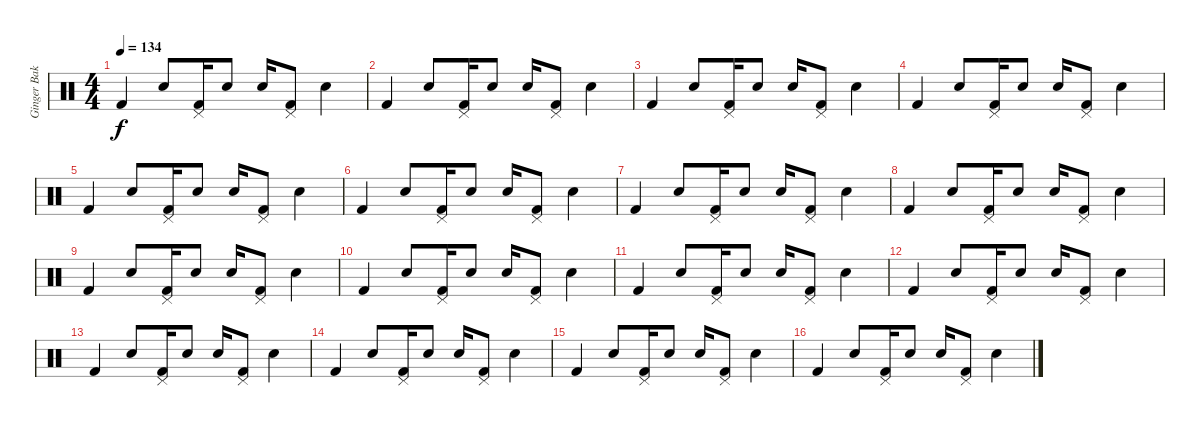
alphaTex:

\track ("Ginger Baker" "Ginger Bak") {instrument percussion}
\staff {score}
\articulation defaults
\ts (4 4)
\tempo 134
\clef neutral
\ks c "Kick (hit) 2".4{dy f} "Snare (hit) 2".8
("Pedal Hi-Hat (hit)" "Kick (hit) 2").16 "Snare (hit) 2".8 "Snare (hit) 2".16 ("Pedal Hi-Hat (hit)" "Kick (hit) 2").8 "Snare (hit) 2".4 |
"Kick (hit) 2".4 "Snare (hit) 2".8 ("Pedal Hi-Hat (hit)" "Kick (hit) 2").16 "Snare (hit) 2".8 "Snare (hit) 2".16 ("Pedal Hi-Hat (hit)" "Kick (hit) 2").8 "Snare (hit) 2".4 |
"Kick (hit) 2".4 "Snare (hit) 2".8 ("Pedal Hi-Hat (hit)" "Kick (hit) 2").16 "Snare (hit) 2".8 "Snare (hit) 2".16 ("Pedal Hi-Hat (hit)" "Kick (hit) 2").8 "Snare (hit) 2".4 |
"Kick (hit) 2".4 "Snare (hit) 2".8 ("Pedal Hi-Hat (hit)" "Kick (hit) 2").16 "Snare (hit) 2".8 "Snare (hit) 2".16 ("Pedal Hi-Hat (hit)" "Kick (hit) 2").8 "Snare (hit) 2".4 |
"Kick (hit) 2".4 "Snare (hit) 2".8 ("Pedal Hi-Hat (hit)" "Kick (hit) 2").16 "Snare (hit) 2".8 "Snare (hit) 2".16 ("Pedal Hi-Hat (hit)" "Kick (hit) 2").8 "Snare (hit) 2".4 |
"Kick (hit) 2".4 "Snare (hit) 2".8 ("Pedal Hi-Hat (hit)" "Kick (hit) 2").16 "Snare (hit) 2".8 "Snare (hit) 2".16 ("Pedal Hi-Hat (hit)" "Kick (hit) 2").8 "Snare (hit) 2".4 |
"Kick (hit) 2".4 "Snare (hit) 2".8 ("Pedal Hi-Hat (hit)" "Kick (hit) 2").16 "Snare (hit) 2".8 "Snare (hit) 2".16 ("Pedal Hi-Hat (hit)" "Kick (hit) 2").8 "Snare (hit) 2".4 |
"Kick (hit) 2".4 "Snare (hit) 2".8 ("Pedal Hi-Hat (hit)" "Kick (hit) 2").16 "Snare (hit) 2".8 "Snare (hit) 2".16 ("Pedal Hi-Hat (hit)" "Kick (hit) 2").8 "Snare (hit) 2".4 |
"Kick (hit) 2".4 "Snare (hit) 2".8 ("Pedal Hi-Hat (hit)" "Kick (hit) 2").16 "Snare (hit) 2".8 "Snare (hit) 2".16 ("Pedal Hi-Hat (hit)" "Kick (hit) 2").8 "Snare (hit) 2".4 |
"Kick (hit) 2".4 "Snare (hit) 2".8 ("Pedal Hi-Hat (hit)" "Kick (hit) 2").16 "Snare (hit) 2".8 "Snare (hit) 2".16 ("Pedal Hi-Hat (hit)" "Kick (hit) 2").8 "Snare (hit) 2".4 |
"Kick (hit) 2".4 "Snare (hit) 2".8 ("Pedal Hi-Hat (hit)" "Kick (hit) 2").16 "Snare (hit) 2".8 "Snare (hit) 2".16 ("Pedal Hi-Hat (hit)" "Kick (hit) 2").8 "Snare (hit) 2".4 |
"Kick (hit) 2".4 "Snare (hit) 2".8 ("Pedal Hi-Hat (hit)" "Kick (hit) 2").16 "Snare (hit) 2".8 "Snare (hit) 2".16 ("Pedal Hi-Hat (hit)" "Kick (hit) 2").8 "Snare (hit) 2".4 |
"Kick (hit) 2".4 "Snare (hit) 2".8 ("Pedal Hi-Hat (hit)" "Kick (hit) 2").16 "Snare (hit) 2".8 "Snare (hit) 2".16 ("Pedal Hi-Hat (hit)" "Kick (hit) 2").8 "Snare (hit) 2".4 |
"Kick (hit) 2".4 "Snare (hit) 2".8 ("Pedal Hi-Hat (hit)" "Kick (hit) 2").16 "Snare (hit) 2".8 "Snare (hit) 2".16 ("Pedal Hi-Hat (hit)" "Kick (hit) 2").8 "Snare (hit) 2".4 |
"Kick (hit) 2".4 "Snare (hit) 2".8 ("Pedal Hi-Hat (hit)" "Kick (hit) 2").16 "Snare (hit) 2".8 "Snare (hit) 2".16 ("Pedal Hi-Hat (hit)" "Kick (hit) 2").8 "Snare (hit) 2".4 |
"Kick (hit) 2".4 "Snare (hit) 2".8 ("Pedal Hi-Hat (hit)" "Kick (hit) 2").16 "Snare (hit) 2".8 "Snare (hit) 2".16 ("Pedal Hi-Hat (hit)" "Kick (hit) 2").8 "Snare (hit) 2".4
